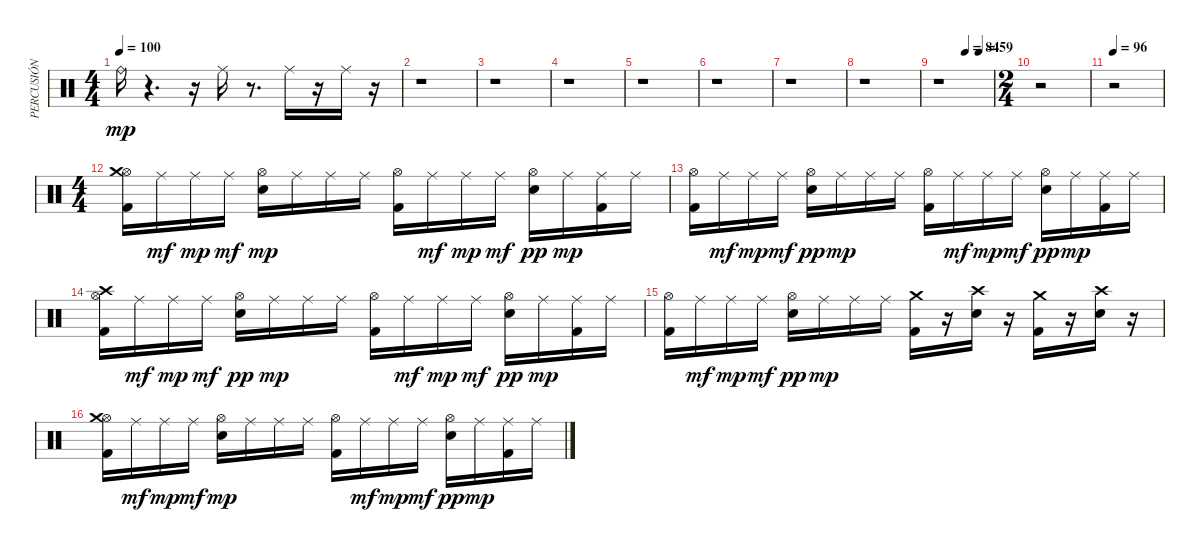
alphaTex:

\track ("PERCUSIÓN" "PERCUSIÓN") {instrument percussion}
\staff {score}
\articulation defaults
\ts (4 4)
\tempo 100
\clef neutral
\ks c "Ride (bell)".16{dy mp}
r.4{d} r.16 "Ride (middle)".16 r.8{d} "Ride (middle)".16 r.16 "Ride (middle)".16 r.16 |
r.1 |
r.1 |
r.1 |
r.1 |
r.1 |
r.1 |
r.1 |
\tempo (84 0.5)
\tempo (59 0.75)
r.1 |
\ts (2 4)
r.2 |
\tempo 96
r.2 |
\ts (4 4)
("Kick (hit) 2" "Hi-Hat (open)" "Crash medium (hit)").16 "Ride (middle)".16{dy mf} "Ride (middle)".16{dy mp} "Ride (middle)".16{dy mf} ("Snare (hit) 2" "Hi-Hat (open)").16{dy mp} "Ride (middle)".16 "Ride (middle)".16 "Ride (middle)".16 ("Kick (hit) 2" "Hi-Hat (open)").16 "Ride (middle)".16{dy mf} "Ride (middle)".16{dy mp} "Ride (middle)".16{dy mf} ("Snare (hit) 2" "Hi-Hat (open)").16{dy pp} "Ride (middle)".16{dy mp} ("Kick (hit) 2" "Ride (middle)").16 "Ride (middle)".16 |
("Kick (hit) 2" "Hi-Hat (open)").16 "Ride (middle)".16{dy mf} "Ride (middle)".16{dy mp} "Ride (middle)".16{dy mf} ("Snare (hit) 2" "Hi-Hat (open)").16{dy pp} "Ride (middle)".16{dy mp} "Ride (middle)".16 "Ride (middle)".16 ("Kick (hit) 2" "Hi-Hat (open)").16 "Ride (middle)".16{dy mf} "Ride (middle)".16{dy mp} "Ride (middle)".16{dy mf} ("Snare (hit) 2" "Hi-Hat (open)").16{dy pp} "Ride (middle)".16{dy mp} ("Kick (hit) 2" "Ride (middle)").16 "Ride (middle)".16 |
("Kick (hit) 2" "Hi-Hat (open)" "Crash high (hit)").16 "Ride (middle)".16{dy mf} "Ride (middle)".16{dy mp} "Ride (middle)".16{dy mf} ("Snare (hit) 2" "Hi-Hat (open)").16{dy pp} "Ride (middle)".16{dy mp} "Ride (middle)".16 "Ride (middle)".16 ("Kick (hit) 2" "Hi-Hat (open)").16 "Ride (middle)".16{dy mf} "Ride (middle)".16{dy mp} "Ride (middle)".16{dy mf} ("Snare (hit) 2" "Hi-Hat (open)").16{dy pp} "Ride (middle)".16{dy mp} ("Kick (hit) 2" "Ride (middle)").16 "Ride (middle)".16 |
("Kick (hit) 2" "Hi-Hat (open)").16 "Ride (middle)".16{dy mf} "Ride (middle)".16{dy mp} "Ride (middle)".16{dy mf} ("Snare (hit) 2" "Hi-Hat (open)").16{dy pp} "Ride (middle)".16{dy mp} "Ride (middle)".16 "Ride (middle)".16 ("Kick (hit) 2" "Crash medium (hit)").16 r.16 ("Snare (hit) 2" "Crash high (hit)").16 r.16 ("Kick (hit) 2" "Crash medium (hit)").16 r.16 ("Snare (hit) 2" "Crash high (hit)").16 r.16 |
("Kick (hit) 2" "Hi-Hat (open)" "Crash medium (hit)").16 "Ride (middle)".16{dy mf} "Ride (middle)".16{dy mp} "Ride (middle)".16{dy mf} ("Snare (hit) 2" "Hi-Hat (open)").16{dy mp} "Ride (middle)".16 "Ride (middle)".16 "Ride (middle)".16 ("Kick (hit) 2" "Hi-Hat (open)").16 "Ride (middle)".16{dy mf} "Ride (middle)".16{dy mp} "Ride (middle)".16{dy mf} ("Snare (hit) 2" "Hi-Hat (open)").16{dy pp} "Ride (middle)".16{dy mp} ("Kick (hit) 2" "Ride (middle)").16 "Ride (middle)".16
